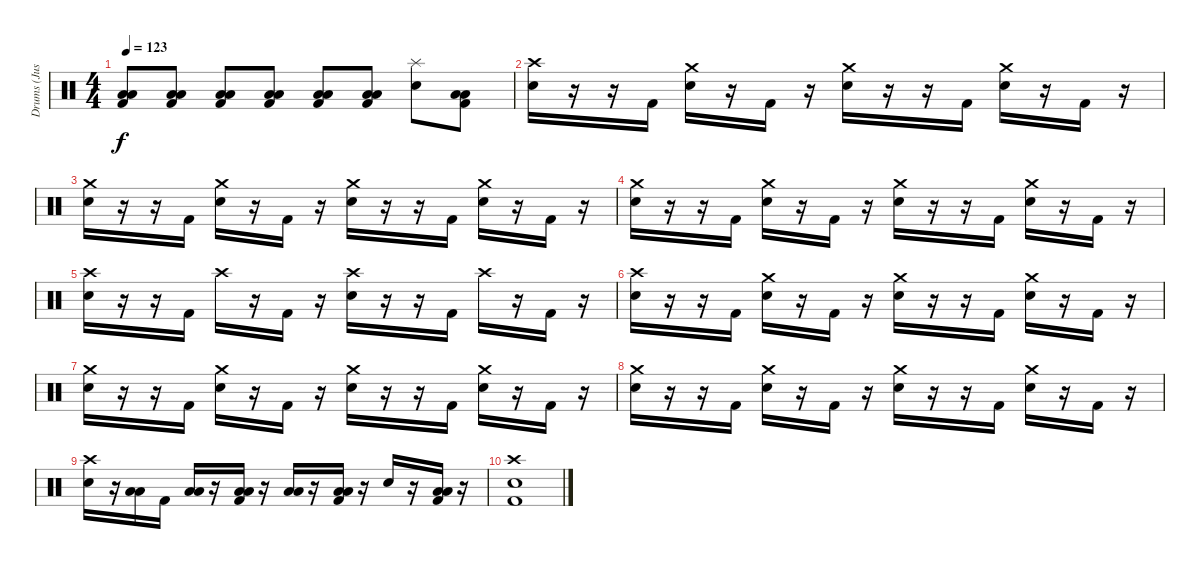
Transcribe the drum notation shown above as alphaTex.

\track ("Drums (Justin)" "Drums (Jus") {instrument percussion}
\staff {score}
\articulation defaults
\ts (4 4)
\tempo 123
\clef neutral
\ks c
("Low Tom (hit)" "Low Floor Tom (hit)" "Kick (hit) 2").8{dy f} ("Low Tom (hit)" "Low Floor Tom (hit)" "Kick (hit) 2").8 ("Low Tom (hit)" "Low Floor Tom (hit)" "Kick (hit) 2").8 ("Low Tom (hit)" "Low Floor Tom (hit)" "Kick (hit) 2").8 ("Low Tom (hit)" "Low Floor Tom (hit)" "Kick (hit) 2").8 ("Low Tom (hit)" "Low Floor Tom (hit)" "Kick (hit) 2").8 ("Electric Snare (hit)" "Splash (hit)").8 ("Low Tom (hit)" "Low Floor Tom (hit)" "Kick (hit) 2").8 |
("Electric Snare (hit)" "Crash high (hit)").16 r.16 r.16 "Kick (hit) 2".16 ("Electric Snare (hit)" "Crash medium (hit)").16 r.16 "Kick (hit) 2".16 r.16 ("Electric Snare (hit)" "Crash medium (hit)").16 r.16 r.16 "Kick (hit) 2".16 ("Electric Snare (hit)" "Crash medium (hit)").16 r.16 "Kick (hit) 2".16 r.16 |
("Electric Snare (hit)" "Crash medium (hit)").16 r.16 r.16 "Kick (hit) 2".16 ("Electric Snare (hit)" "Crash medium (hit)").16 r.16 "Kick (hit) 2".16 r.16 ("Electric Snare (hit)" "Crash medium (hit)").16 r.16 r.16 "Kick (hit) 2".16 ("Electric Snare (hit)" "Crash medium (hit)").16 r.16 "Kick (hit) 2".16 r.16 |
("Electric Snare (hit)" "Crash medium (hit)").16 r.16 r.16 "Kick (hit) 2".16 ("Electric Snare (hit)" "Crash medium (hit)").16 r.16 "Kick (hit) 2".16 r.16 ("Electric Snare (hit)" "Crash medium (hit)").16 r.16 r.16 "Kick (hit) 2".16 ("Electric Snare (hit)" "Crash medium (hit)").16 r.16 "Kick (hit) 2".16 r.16 |
("Electric Snare (hit)" "Crash high (hit)").16 r.16 r.16 "Kick (hit) 2".16 "Crash high (hit)".16 r.16 "Kick (hit) 2".16 r.16 ("Electric Snare (hit)" "Crash high (hit)").16 r.16 r.16 "Kick (hit) 2".16 "Crash high (hit)".16 r.16 "Kick (hit) 2".16 r.16 |
("Electric Snare (hit)" "Crash high (hit)").16 r.16 r.16 "Kick (hit) 2".16 ("Electric Snare (hit)" "Crash medium (hit)").16 r.16 "Kick (hit) 2".16 r.16 ("Electric Snare (hit)" "Crash medium (hit)").16 r.16 r.16 "Kick (hit) 2".16 ("Electric Snare (hit)" "Crash medium (hit)").16 r.16 "Kick (hit) 2".16 r.16 |
("Electric Snare (hit)" "Crash medium (hit)").16 r.16 r.16 "Kick (hit) 2".16 ("Electric Snare (hit)" "Crash medium (hit)").16 r.16 "Kick (hit) 2".16 r.16 ("Electric Snare (hit)" "Crash medium (hit)").16 r.16 r.16 "Kick (hit) 2".16 ("Electric Snare (hit)" "Crash medium (hit)").16 r.16 "Kick (hit) 2".16 r.16 |
("Electric Snare (hit)" "Crash medium (hit)").16 r.16 r.16 "Kick (hit) 2".16 ("Electric Snare (hit)" "Crash medium (hit)").16 r.16 "Kick (hit) 2".16 r.16 ("Electric Snare (hit)" "Crash medium (hit)").16 r.16 r.16 "Kick (hit) 2".16 ("Electric Snare (hit)" "Crash medium (hit)").16 r.16 "Kick (hit) 2".16 r.16 |
("Electric Snare (hit)" "Crash high (hit)").16 r.16 ("Low Tom (hit)" "Low Floor Tom (hit)").16 "Kick (hit) 2".16 ("Low Tom (hit)" "Low Floor Tom (hit)").16 r.16 ("Low Tom (hit)" "Low Floor Tom (hit)" "Kick (hit) 2").16 r.16 ("Low Tom (hit)" "Low Floor Tom (hit)").16 r.16 ("Low Tom (hit)" "Low Floor Tom (hit)" "Kick (hit) 2").16 r.16 "Electric Snare (hit)".16 r.16 ("Low Tom (hit)" "Low Floor Tom (hit)" "Kick (hit) 2").16 r.16 |
("Electric Snare (hit)" "Crash high (hit)" "Kick (hit) 2").1
